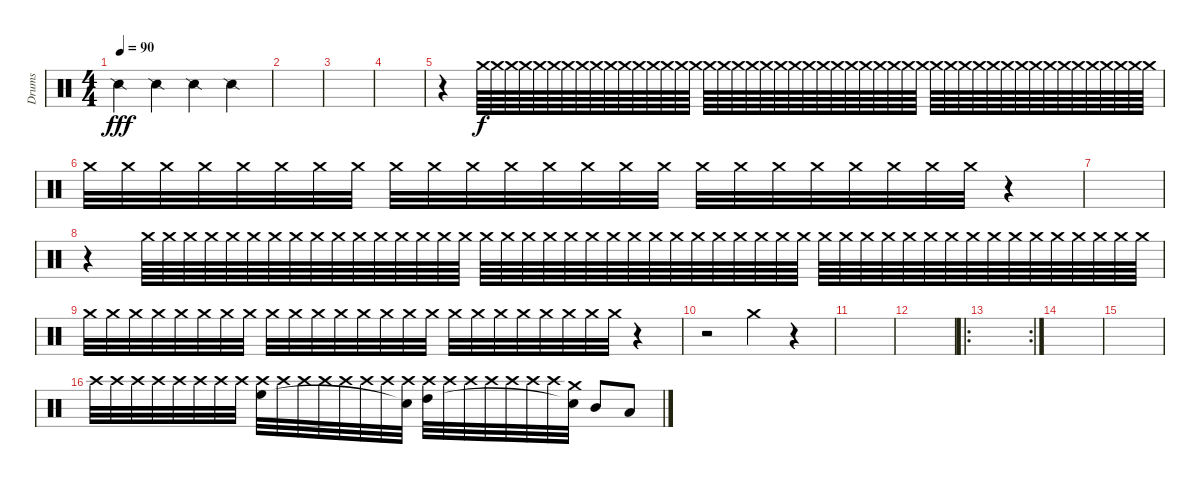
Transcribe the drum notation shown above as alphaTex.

\track ("Drums" "Drums") {instrument percussion}
\staff {score}
\articulation defaults
\ts (4 4)
\tempo 90
\clef neutral
\ks c "Snare (side stick) 2".4{dy fff} "Snare (side stick) 2".4 "Snare (side stick) 2".4 "Snare (side stick) 2".4
|
|
|
|
r.4{volume 0} "Crash medium (hit)".64{dy f volume 6} "Crash medium (hit)".64 "Crash medium (hit)".64 "Crash medium (hit)".64 "Crash medium (hit)".64 "Crash medium (hit)".64 "Crash medium (hit)".64 "Crash medium (hit)".64 "Crash medium (hit)".64 "Crash medium (hit)".64 "Crash medium (hit)".64 "Crash medium (hit)".64 "Crash medium (hit)".64 "Crash medium (hit)".64 "Crash medium (hit)".64 "Crash medium (hit)".64 "Crash medium (hit)".64 "Crash medium (hit)".64 "Crash medium (hit)".64 "Crash medium (hit)".64 "Crash medium (hit)".64 "Crash medium (hit)".64 "Crash medium (hit)".64 "Crash medium (hit)".64 "Crash medium (hit)".64 "Crash medium (hit)".64 "Crash medium (hit)".64 "Crash medium (hit)".64 "Crash medium (hit)".64 "Crash medium (hit)".64 "Crash medium (hit)".64 "Crash medium (hit)".64 "Crash medium (hit)".64 "Crash medium (hit)".64 "Crash medium (hit)".64 "Crash medium (hit)".64 "Crash medium (hit)".64 "Crash medium (hit)".64 "Crash medium (hit)".64 "Crash medium (hit)".64 "Crash medium (hit)".64 "Crash medium (hit)".64 "Crash medium (hit)".64 "Crash medium (hit)".64 "Crash medium (hit)".64 "Crash medium (hit)".64 "Crash medium (hit)".64 "Crash medium (hit)".64 |
"Crash medium (hit)".32{volume 0} "Crash medium (hit)".32 "Crash medium (hit)".32 "Crash medium (hit)".32 "Crash medium (hit)".32 "Crash medium (hit)".32 "Crash medium (hit)".32 "Crash medium (hit)".32 "Crash medium (hit)".32 "Crash medium (hit)".32 "Crash medium (hit)".32 "Crash medium (hit)".32 "Crash medium (hit)".32 "Crash medium (hit)".32 "Crash medium (hit)".32 "Crash medium (hit)".32 "Crash medium (hit)".32 "Crash medium (hit)".32 "Crash medium (hit)".32 "Crash medium (hit)".32 "Crash medium (hit)".32 "Crash medium (hit)".32 "Crash medium (hit)".32 "Crash medium (hit)".32 r.4 |
|
r.4{volume 0} "Crash medium (hit)".64{volume 6} "Crash medium (hit)".64 "Crash medium (hit)".64 "Crash medium (hit)".64 "Crash medium (hit)".64 "Crash medium (hit)".64 "Crash medium (hit)".64 "Crash medium (hit)".64 "Crash medium (hit)".64 "Crash medium (hit)".64 "Crash medium (hit)".64 "Crash medium (hit)".64 "Crash medium (hit)".64 "Crash medium (hit)".64 "Crash medium (hit)".64 "Crash medium (hit)".64 "Crash medium (hit)".64 "Crash medium (hit)".64 "Crash medium (hit)".64 "Crash medium (hit)".64 "Crash medium (hit)".64 "Crash medium (hit)".64 "Crash medium (hit)".64 "Crash medium (hit)".64 "Crash medium (hit)".64 "Crash medium (hit)".64 "Crash medium (hit)".64 "Crash medium (hit)".64 "Crash medium (hit)".64 "Crash medium (hit)".64 "Crash medium (hit)".64 "Crash medium (hit)".64 "Crash medium (hit)".64 "Crash medium (hit)".64 "Crash medium (hit)".64 "Crash medium (hit)".64 "Crash medium (hit)".64 "Crash medium (hit)".64 "Crash medium (hit)".64 "Crash medium (hit)".64 "Crash medium (hit)".64 "Crash medium (hit)".64 "Crash medium (hit)".64 "Crash medium (hit)".64 "Crash medium (hit)".64 "Crash medium (hit)".64 "Crash medium (hit)".64 "Crash medium (hit)".64 |
"Crash medium (hit)".32{volume 0} "Crash medium (hit)".32 "Crash medium (hit)".32 "Crash medium (hit)".32 "Crash medium (hit)".32 "Crash medium (hit)".32 "Crash medium (hit)".32 "Crash medium (hit)".32 "Crash medium (hit)".32 "Crash medium (hit)".32 "Crash medium (hit)".32 "Crash medium (hit)".32 "Crash medium (hit)".32 "Crash medium (hit)".32 "Crash medium (hit)".32 "Crash medium (hit)".32 "Crash medium (hit)".32 "Crash medium (hit)".32 "Crash medium (hit)".32 "Crash medium (hit)".32 "Crash medium (hit)".32 "Crash medium (hit)".32 "Crash medium (hit)".32 "Crash medium (hit)".32 r.4 |
r.2 "Crash medium (hit)".4{volume 8} r.4 |
|
|
\ro
\rc 2
|
|
|
"Crash high (hit)".32{volume 0} "Crash high (hit)".32{volume 0} "Crash high (hit)".32{volume 1} "Crash high (hit)".32{volume 2} "Crash high (hit)".32{volume 2} "Crash high (hit)".32{volume 3} "Crash high (hit)".32{volume 3} "Crash high (hit)".32{volume 4} ("Crash high (hit)" "High Floor Tom (hit)").32{volume 4} "Crash high (hit)".32{volume 5} "Crash high (hit)".32{volume 5} "Crash high (hit)".32{volume 6} "Crash high (hit)".32{volume 6} "Crash high (hit)".32{volume 7} "Crash high (hit)".32{volume 7} ("Crash high (hit)" "Snare (hit)"{t}).32{volume 8} ("Crash high (hit)" "High Tom (hit)").32{volume 8} "Crash high (hit)".32{volume 9} "Crash high (hit)".32{volume 9} "Crash high (hit)".32{volume 10} "Crash high (hit)".32{volume 10} "Crash high (hit)".32{volume 11} "Crash high (hit)".32{volume 12} ("Crash medium (hit)" "Snare (hit)"{t}).32 "Mid Tom (hit)".8 "Low Tom (hit)".8
